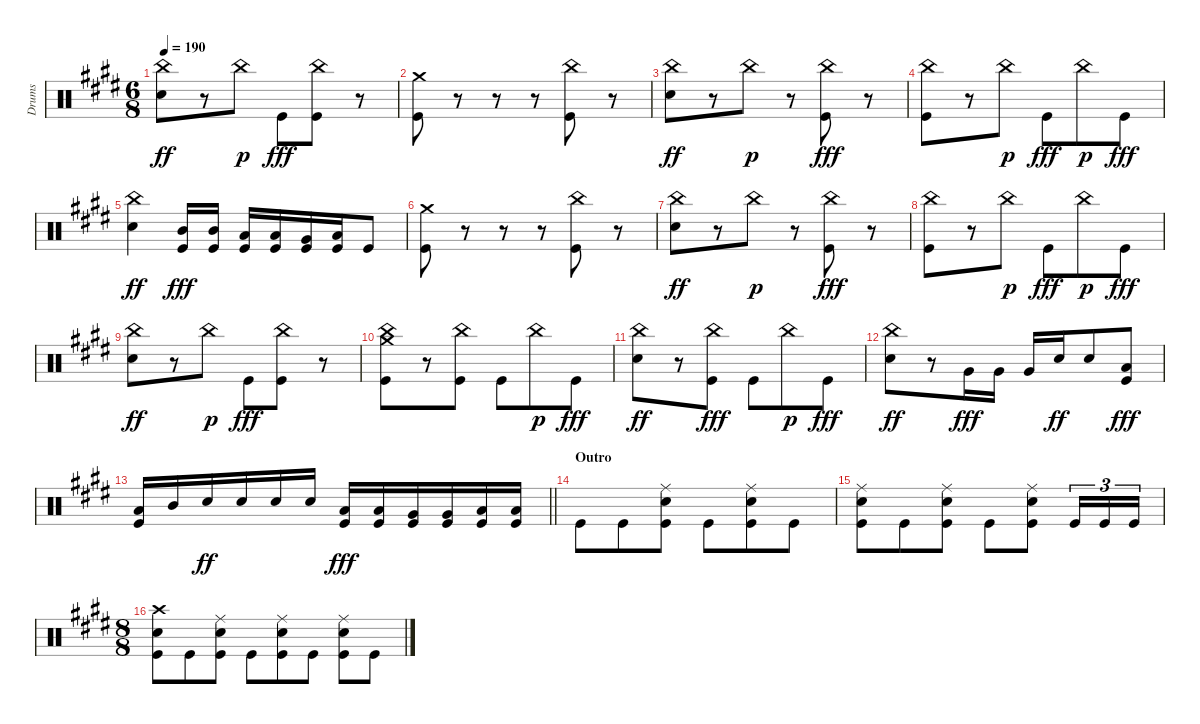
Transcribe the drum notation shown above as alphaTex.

\track ("Drums" "Drums") {instrument percussion}
\staff {score}
\articulation defaults
\ts (6 8)
\tempo 190
\clef neutral
\ks c#minor
("China (hit)" "Snare (hit) 2").8{dy ff} r.8 "China (hit)".8{dy p} "Kick (hit)".8{dy fff} ("China (hit)" "Kick (hit)").8 r.8 |
("Crash medium (hit)" "Kick (hit)").8 r.8 r.8 r.8 ("China (hit)" "Kick (hit)").8 r.8 |
("China (hit)" "Snare (hit) 2").8{dy ff} r.8 "China (hit)".8{dy p} r.8 ("China (hit)" "Kick (hit)").8{dy fff} r.8 |
("China (hit)" "Kick (hit)").8 r.8 "China (hit)".8{dy p} "Kick (hit)".8{dy fff} "China (hit)".8{dy p} "Kick (hit)".8{dy fff} |
("China (hit)" "Snare (hit) 2").4{dy ff} ("Mid Tom (hit)" "Kick (hit)").16{dy fff} ("Mid Tom (hit)" "Kick (hit)").16 ("Low Tom (hit)" "Kick (hit)").16 ("Low Tom (hit)" "Kick (hit)").16 ("Very Low Tom (hit)" "Kick (hit)").16 ("Low Floor Tom (hit)" "Kick (hit)").16 "Kick (hit)".8 |
("Crash medium (hit)" "Kick (hit)").8 r.8 r.8 r.8 ("China (hit)" "Kick (hit)").8 r.8 |
("China (hit)" "Snare (hit) 2").8{dy ff} r.8 "China (hit)".8{dy p} r.8 ("China (hit)" "Kick (hit)").8{dy fff} r.8 |
("China (hit)" "Kick (hit)").8 r.8 "China (hit)".8{dy p} "Kick (hit)".8{dy fff} "China (hit)".8{dy p} "Kick (hit)".8{dy fff} |
("China (hit)" "Snare (hit) 2").8{dy ff} r.8 "China (hit)".8{dy p} "Kick (hit)".8{dy fff} ("China (hit)" "Kick (hit)").8 r.8 |
("Crash medium (hit)" "China (hit)" "Kick (hit)").8 r.8 ("China (hit)" "Kick (hit)").8 "Kick (hit)".8 "China (hit)".8{dy p} "Kick (hit)".8{dy fff} |
("China (hit)" "Snare (hit) 2").8{dy ff} r.8 ("China (hit)" "Kick (hit)").8{dy fff} "Kick (hit)".8 "China (hit)".8{dy p} "Kick (hit)".8{dy fff} |
("China (hit)" "Snare (hit) 2").8{dy ff} r.8 "Very Low Tom (hit)".16{dy fff} "Very Low Tom (hit)".16 "Very Low Tom (hit)".16 "Snare (hit) 2".16{dy ff} "Snare (hit) 2".8 ("Low Floor Tom (hit)" "Kick (hit)").8{dy fff} |
\barLineRight lightlight
("Low Floor Tom (hit)" "Kick (hit)").16 "Mid Tom (hit)".16 "Snare (hit) 2".16{dy ff} "Snare (hit) 2".16 "Snare (hit) 2".16 "Snare (hit) 2".16 ("Low Tom (hit)" "Kick (hit)").16{dy fff} ("Low Tom (hit)" "Kick (hit)").16 ("Very Low Tom (hit)" "Kick (hit)").16 ("Very Low Tom (hit)" "Kick (hit)").16 ("Low Floor Tom (hit)" "Kick (hit)").16 ("Low Floor Tom (hit)" "Kick (hit)").16 |
\section ("" "Outro")
"Kick (hit)".8 "Kick (hit)".8 ("Ride (middle)" "Snare (hit) 2" "Kick (hit)").8 "Kick (hit)".8 ("Ride (middle)" "Snare (hit) 2" "Kick (hit)").8 "Kick (hit)".8 |
("Ride (middle)" "Snare (hit) 2" "Kick (hit)").8 "Kick (hit)".8 ("Ride (middle)" "Snare (hit) 2" "Kick (hit)").8 "Kick (hit)".8 ("Ride (middle)" "Snare (hit) 2" "Kick (hit)").8 "Kick (hit)".16{tu (3 2)} "Kick (hit)".16{tu (3 2)} "Kick (hit)".16{tu (3 2)} |
\ts (8 8)
("Crash high (hit)" "Snare (hit) 2" "Kick (hit)").8 "Kick (hit)".8 ("Ride (middle)" "Snare (hit) 2" "Kick (hit)").8 "Kick (hit)".8 ("Ride (middle)" "Snare (hit) 2" "Kick (hit)").8 "Kick (hit)".8 ("Ride (middle)" "Snare (hit) 2" "Kick (hit)").8 "Kick (hit)".8
